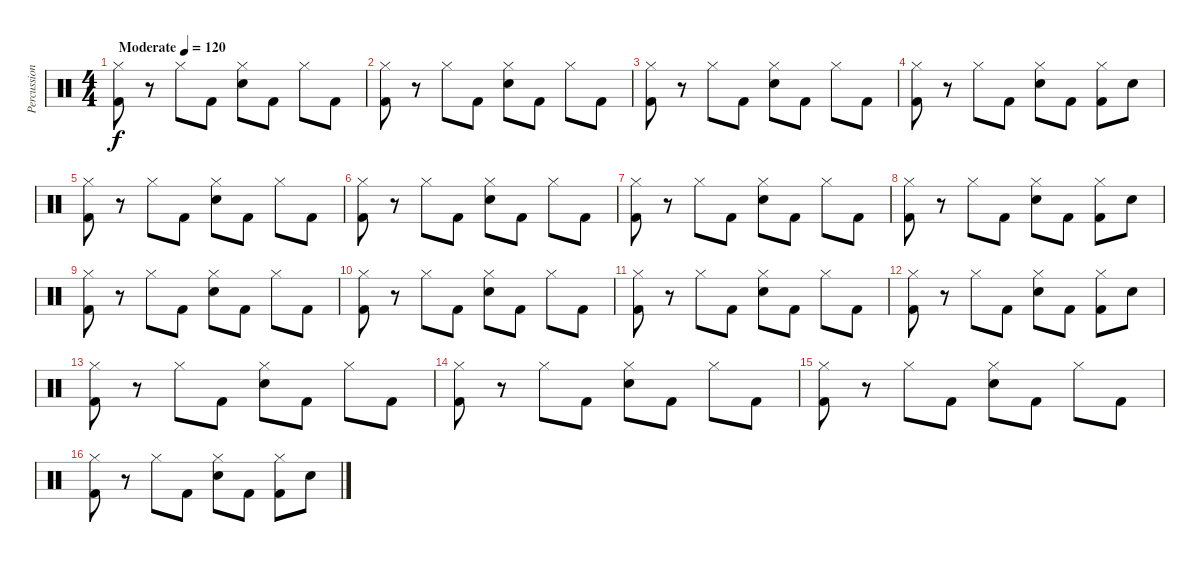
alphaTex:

\track ("Percussions" "Percussion") {instrument percussion}
\staff {score}
\articulation defaults
\ts (4 4)
\tempo (120 "Moderate")
\clef neutral
\ks c
("Hi-Hat (closed)" "Kick (hit) 2").8{dy f} r.8 "Hi-Hat (closed)".8 "Kick (hit) 2".8 ("Hi-Hat (closed)" "Snare (hit) 2").8 "Kick (hit) 2".8 "Hi-Hat (closed)".8 "Kick (hit) 2".8 |
("Hi-Hat (closed)" "Kick (hit) 2").8 r.8 "Hi-Hat (closed)".8 "Kick (hit) 2".8 ("Hi-Hat (closed)" "Snare (hit) 2").8 "Kick (hit) 2".8 "Hi-Hat (closed)".8 "Kick (hit) 2".8 |
("Hi-Hat (closed)" "Kick (hit) 2").8 r.8 "Hi-Hat (closed)".8 "Kick (hit) 2".8 ("Hi-Hat (closed)" "Snare (hit) 2").8 "Kick (hit) 2".8 "Hi-Hat (closed)".8 "Kick (hit) 2".8 |
("Hi-Hat (closed)" "Kick (hit) 2").8 r.8 "Hi-Hat (closed)".8 "Kick (hit) 2".8 ("Hi-Hat (closed)" "Snare (hit) 2").8 "Kick (hit) 2".8 ("Hi-Hat (closed)" "Kick (hit) 2").8 "Snare (hit) 2".8 |
("Hi-Hat (closed)" "Kick (hit) 2").8 r.8 "Hi-Hat (closed)".8 "Kick (hit) 2".8 ("Hi-Hat (closed)" "Snare (hit) 2").8 "Kick (hit) 2".8 "Hi-Hat (closed)".8 "Kick (hit) 2".8 |
("Hi-Hat (closed)" "Kick (hit) 2").8 r.8 "Hi-Hat (closed)".8 "Kick (hit) 2".8 ("Hi-Hat (closed)" "Snare (hit) 2").8 "Kick (hit) 2".8 "Hi-Hat (closed)".8 "Kick (hit) 2".8 |
("Hi-Hat (closed)" "Kick (hit) 2").8 r.8 "Hi-Hat (closed)".8 "Kick (hit) 2".8 ("Hi-Hat (closed)" "Snare (hit) 2").8 "Kick (hit) 2".8 "Hi-Hat (closed)".8 "Kick (hit) 2".8 |
("Hi-Hat (closed)" "Kick (hit) 2").8 r.8 "Hi-Hat (closed)".8 "Kick (hit) 2".8 ("Hi-Hat (closed)" "Snare (hit) 2").8 "Kick (hit) 2".8 ("Hi-Hat (closed)" "Kick (hit) 2").8 "Snare (hit) 2".8 |
("Hi-Hat (closed)" "Kick (hit) 2").8 r.8 "Hi-Hat (closed)".8 "Kick (hit) 2".8 ("Hi-Hat (closed)" "Snare (hit) 2").8 "Kick (hit) 2".8 "Hi-Hat (closed)".8 "Kick (hit) 2".8 |
("Hi-Hat (closed)" "Kick (hit) 2").8 r.8 "Hi-Hat (closed)".8 "Kick (hit) 2".8 ("Hi-Hat (closed)" "Snare (hit) 2").8 "Kick (hit) 2".8 "Hi-Hat (closed)".8 "Kick (hit) 2".8 |
("Hi-Hat (closed)" "Kick (hit) 2").8 r.8 "Hi-Hat (closed)".8 "Kick (hit) 2".8 ("Hi-Hat (closed)" "Snare (hit) 2").8 "Kick (hit) 2".8 "Hi-Hat (closed)".8 "Kick (hit) 2".8 |
("Hi-Hat (closed)" "Kick (hit) 2").8 r.8 "Hi-Hat (closed)".8 "Kick (hit) 2".8 ("Hi-Hat (closed)" "Snare (hit) 2").8 "Kick (hit) 2".8 ("Hi-Hat (closed)" "Kick (hit) 2").8 "Snare (hit) 2".8 |
("Hi-Hat (closed)" "Kick (hit) 2").8 r.8 "Hi-Hat (closed)".8 "Kick (hit) 2".8 ("Hi-Hat (closed)" "Snare (hit) 2").8 "Kick (hit) 2".8 "Hi-Hat (closed)".8 "Kick (hit) 2".8 |
("Hi-Hat (closed)" "Kick (hit) 2").8 r.8 "Hi-Hat (closed)".8 "Kick (hit) 2".8 ("Hi-Hat (closed)" "Snare (hit) 2").8 "Kick (hit) 2".8 "Hi-Hat (closed)".8 "Kick (hit) 2".8 |
("Hi-Hat (closed)" "Kick (hit) 2").8 r.8 "Hi-Hat (closed)".8 "Kick (hit) 2".8 ("Hi-Hat (closed)" "Snare (hit) 2").8 "Kick (hit) 2".8 "Hi-Hat (closed)".8 "Kick (hit) 2".8 |
("Hi-Hat (closed)" "Kick (hit) 2").8 r.8 "Hi-Hat (closed)".8 "Kick (hit) 2".8 ("Hi-Hat (closed)" "Snare (hit) 2").8 "Kick (hit) 2".8 ("Hi-Hat (closed)" "Kick (hit) 2").8 "Snare (hit) 2".8
